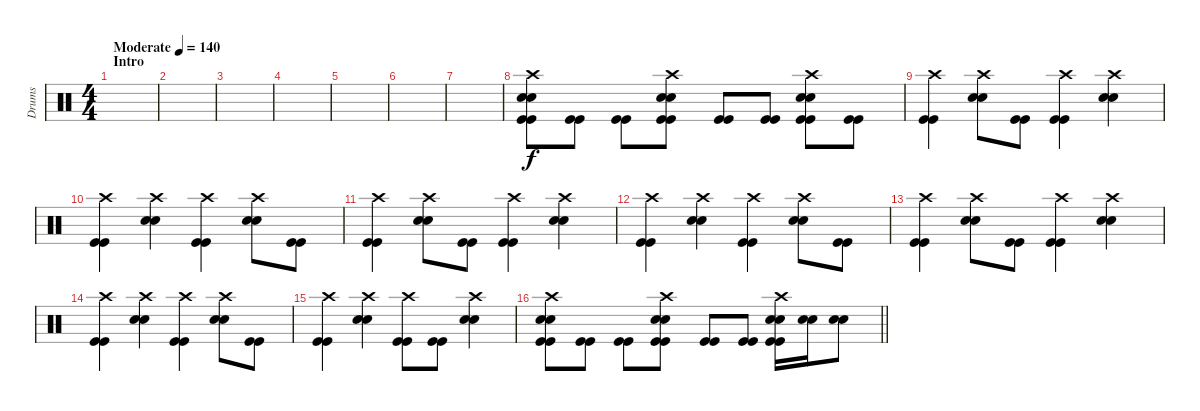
\track ("Drums" "Drums") {instrument percussion}
\staff {score}
\articulation defaults
\ts (4 4)
\section ("" "Intro")
\tempo (140 "Moderate")
\clef neutral
\ks c
|
|
|
|
|
|
|
("Crash high (hit)" "Snare (hit) 2" "Snare (hit) 2" "Kick (hit)" "Kick (hit)").8 ("Kick (hit)" "Kick (hit)").8 ("Kick (hit)" "Kick (hit)").8 ("Crash high (hit)" "Snare (hit) 2" "Snare (hit) 2" "Kick (hit)" "Kick (hit)").8 ("Kick (hit)" "Kick (hit)").8 ("Kick (hit)" "Kick (hit)").8 ("Crash high (hit)" "Snare (hit) 2" "Snare (hit) 2" "Kick (hit)" "Kick (hit)").8 ("Kick (hit)" "Kick (hit)").8 |
("Crash high (hit)" "Kick (hit)" "Kick (hit)").4 ("Crash high (hit)" "Snare (hit) 2" "Snare (hit) 2").8 ("Kick (hit)" "Kick (hit)").8 ("Crash high (hit)" "Kick (hit)" "Kick (hit)").4 ("Crash high (hit)" "Snare (hit) 2" "Snare (hit) 2").4 |
("Crash high (hit)" "Kick (hit)" "Kick (hit)").4 ("Crash high (hit)" "Snare (hit) 2" "Snare (hit) 2").4 ("Crash high (hit)" "Kick (hit)" "Kick (hit)").4 ("Crash high (hit)" "Snare (hit) 2" "Snare (hit) 2").8 ("Kick (hit)" "Kick (hit)").8 |
("Crash high (hit)" "Kick (hit)" "Kick (hit)").4 ("Crash high (hit)" "Snare (hit) 2" "Snare (hit) 2").8 ("Kick (hit)" "Kick (hit)").8 ("Crash high (hit)" "Kick (hit)" "Kick (hit)").4 ("Crash high (hit)" "Snare (hit) 2" "Snare (hit) 2").4 |
("Crash high (hit)" "Kick (hit)" "Kick (hit)").4 ("Crash high (hit)" "Snare (hit) 2" "Snare (hit) 2").4 ("Crash high (hit)" "Kick (hit)" "Kick (hit)").4 ("Crash high (hit)" "Snare (hit) 2" "Snare (hit) 2").8 ("Kick (hit)" "Kick (hit)").8 |
("Crash high (hit)" "Kick (hit)" "Kick (hit)").4 ("Crash high (hit)" "Snare (hit) 2" "Snare (hit) 2").8 ("Kick (hit)" "Kick (hit)").8 ("Crash high (hit)" "Kick (hit)" "Kick (hit)").4 ("Crash high (hit)" "Snare (hit) 2" "Snare (hit) 2").4 |
("Crash high (hit)" "Kick (hit)" "Kick (hit)").4 ("Crash high (hit)" "Snare (hit) 2" "Snare (hit) 2").4 ("Crash high (hit)" "Kick (hit)" "Kick (hit)").4 ("Crash high (hit)" "Snare (hit) 2" "Snare (hit) 2").8 ("Kick (hit)" "Kick (hit)").8 |
("Crash high (hit)" "Kick (hit)" "Kick (hit)").4 ("Crash high (hit)" "Snare (hit) 2" "Snare (hit) 2").4 ("Crash high (hit)" "Kick (hit)" "Kick (hit)").8 ("Kick (hit)" "Kick (hit)").8 ("Crash high (hit)" "Snare (hit) 2" "Snare (hit) 2").4 |
\barLineRight lightlight
("Crash high (hit)" "Snare (hit) 2" "Snare (hit) 2" "Kick (hit)" "Kick (hit)").8 ("Kick (hit)" "Kick (hit)").8 ("Kick (hit)" "Kick (hit)").8 ("Crash high (hit)" "Snare (hit) 2" "Snare (hit) 2" "Kick (hit)" "Kick (hit)").8 ("Kick (hit)" "Kick (hit)").8 ("Kick (hit)" "Kick (hit)").8 ("Crash high (hit)" "Snare (hit) 2" "Snare (hit) 2" "Kick (hit)" "Kick (hit)").16 ("Snare (hit) 2" "Snare (hit) 2").16 ("Snare (hit) 2" "Snare (hit) 2").8
